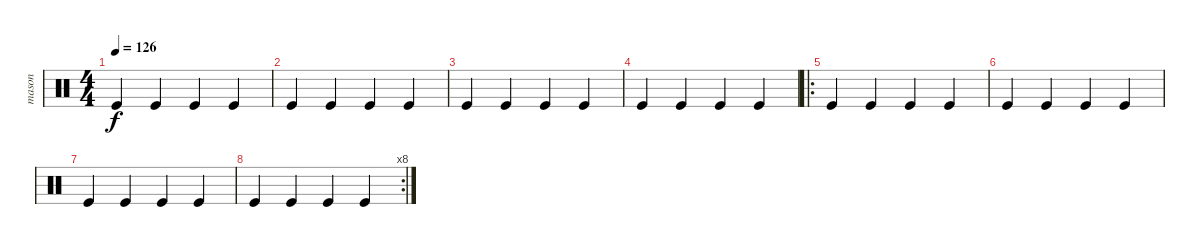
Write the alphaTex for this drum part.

\track ("mason" "mason") {instrument percussion}
\staff {score}
\articulation defaults
\ts (4 4)
\tempo 126
\clef neutral
\ks c "Kick (hit)".4{dy f} "Kick (hit)".4 "Kick (hit)".4 "Kick (hit)".4
|
"Kick (hit)".4 "Kick (hit)".4 "Kick (hit)".4 "Kick (hit)".4 |
"Kick (hit)".4 "Kick (hit)".4 "Kick (hit)".4 "Kick (hit)".4 |
"Kick (hit)".4 "Kick (hit)".4 "Kick (hit)".4 "Kick (hit)".4 |
\ro "Kick (hit)".4 "Kick (hit)".4 "Kick (hit)".4 "Kick (hit)".4
|
"Kick (hit)".4 "Kick (hit)".4 "Kick (hit)".4 "Kick (hit)".4 |
"Kick (hit)".4 "Kick (hit)".4 "Kick (hit)".4 "Kick (hit)".4 |
\rc 8 "Kick (hit)".4 "Kick (hit)".4 "Kick (hit)".4 "Kick (hit)".4
